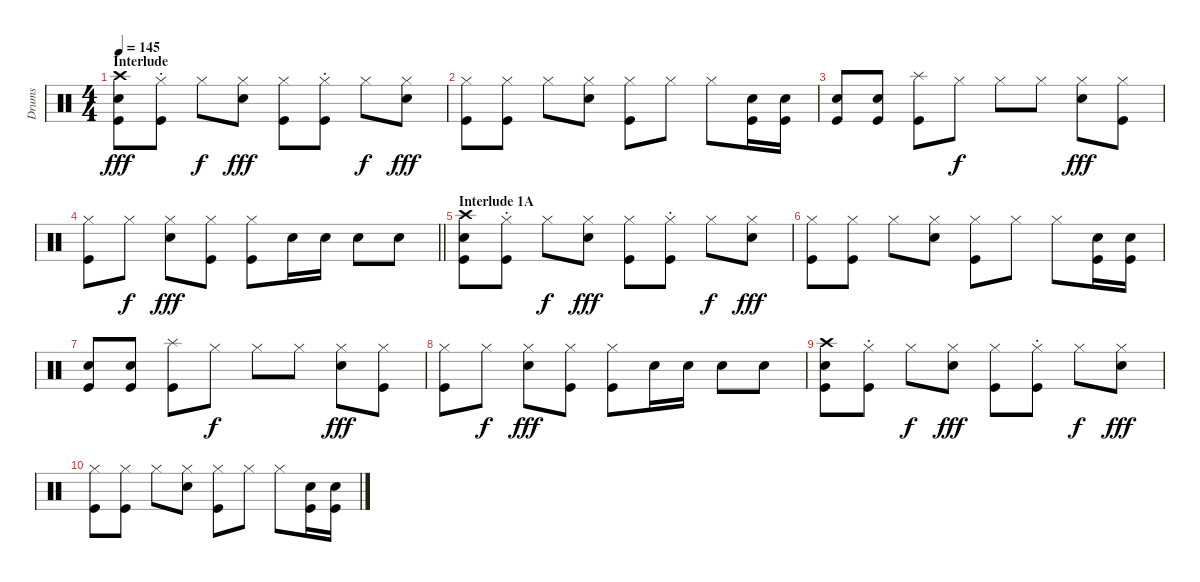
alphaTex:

\track ("Drums" "Drums") {instrument percussion}
\staff {score}
\articulation defaults
\ts (4 4)
\section ("" "Interlude")
\tempo 145
\clef neutral
\ks c
("Crash high (hit)" "Electric Snare (hit)" "Kick (hit)").8{dy fff} ("Hi-Hat (closed)"{st} "Kick (hit)").8 "Hi-Hat (closed)".8{dy f} ("Hi-Hat (closed)" "Electric Snare (hit)").8{dy fff} ("Hi-Hat (closed)" "Kick (hit)").8 ("Hi-Hat (closed)"{st} "Kick (hit)").8 "Hi-Hat (closed)".8{dy f} ("Hi-Hat (closed)" "Electric Snare (hit)").8{dy fff} |
("Hi-Hat (closed)" "Kick (hit)").8 ("Hi-Hat (closed)" "Kick (hit)").8 "Hi-Hat (closed)".8 ("Hi-Hat (closed)" "Electric Snare (hit)").8 ("Hi-Hat (closed)" "Kick (hit)").8 "Hi-Hat (closed)".8 "Hi-Hat (closed)".8 ("Electric Snare (hit)" "Kick (hit)").16 ("Electric Snare (hit)" "Kick (hit)").16 |
("Electric Snare (hit)" "Kick (hit)").8 ("Electric Snare (hit)" "Kick (hit)").8 ("Splash (hit)" "Kick (hit)").8 "Hi-Hat (closed)".8{dy f} "Hi-Hat (closed)".8 "Hi-Hat (closed)".8 ("Hi-Hat (closed)" "Electric Snare (hit)").8{dy fff} ("Hi-Hat (closed)" "Kick (hit)").8 |
\barLineRight lightlight
("Hi-Hat (closed)" "Kick (hit)").8 "Hi-Hat (closed)".8{dy f} ("Hi-Hat (closed)" "Electric Snare (hit)").8{dy fff} ("Hi-Hat (closed)" "Kick (hit)").8 ("Hi-Hat (closed)" "Kick (hit)").8 "Electric Snare (hit)".16 "Electric Snare (hit)".16 "Electric Snare (hit)".8 "Electric Snare (hit)".8 |
\section ("" "Interlude 1A")
("Crash high (hit)" "Electric Snare (hit)" "Kick (hit)").8 ("Hi-Hat (closed)"{st} "Kick (hit)").8 "Hi-Hat (closed)".8{dy f} ("Hi-Hat (closed)" "Electric Snare (hit)").8{dy fff} ("Hi-Hat (closed)" "Kick (hit)").8 ("Hi-Hat (closed)"{st} "Kick (hit)").8 "Hi-Hat (closed)".8{dy f} ("Hi-Hat (closed)" "Electric Snare (hit)").8{dy fff} |
("Hi-Hat (closed)" "Kick (hit)").8 ("Hi-Hat (closed)" "Kick (hit)").8 "Hi-Hat (closed)".8 ("Hi-Hat (closed)" "Electric Snare (hit)").8 ("Hi-Hat (closed)" "Kick (hit)").8 "Hi-Hat (closed)".8 "Hi-Hat (closed)".8 ("Electric Snare (hit)" "Kick (hit)").16 ("Electric Snare (hit)" "Kick (hit)").16 |
("Electric Snare (hit)" "Kick (hit)").8 ("Electric Snare (hit)" "Kick (hit)").8 ("Splash (hit)" "Kick (hit)").8 "Hi-Hat (closed)".8{dy f} "Hi-Hat (closed)".8 "Hi-Hat (closed)".8 ("Hi-Hat (closed)" "Electric Snare (hit)").8{dy fff} ("Hi-Hat (closed)" "Kick (hit)").8 |
("Hi-Hat (closed)" "Kick (hit)").8 "Hi-Hat (closed)".8{dy f} ("Hi-Hat (closed)" "Electric Snare (hit)").8{dy fff} ("Hi-Hat (closed)" "Kick (hit)").8 ("Hi-Hat (closed)" "Kick (hit)").8 "Electric Snare (hit)".16 "Electric Snare (hit)".16 "Electric Snare (hit)".8 "Electric Snare (hit)".8 |
("Crash high (hit)" "Electric Snare (hit)" "Kick (hit)").8 ("Hi-Hat (closed)"{st} "Kick (hit)").8 "Hi-Hat (closed)".8{dy f} ("Hi-Hat (closed)" "Electric Snare (hit)").8{dy fff} ("Hi-Hat (closed)" "Kick (hit)").8 ("Hi-Hat (closed)"{st} "Kick (hit)").8 "Hi-Hat (closed)".8{dy f} ("Hi-Hat (closed)" "Electric Snare (hit)").8{dy fff} |
("Hi-Hat (closed)" "Kick (hit)").8 ("Hi-Hat (closed)" "Kick (hit)").8 "Hi-Hat (closed)".8 ("Hi-Hat (closed)" "Electric Snare (hit)").8 ("Hi-Hat (closed)" "Kick (hit)").8 "Hi-Hat (closed)".8 "Hi-Hat (closed)".8 ("Electric Snare (hit)" "Kick (hit)").16 ("Electric Snare (hit)" "Kick (hit)").16
